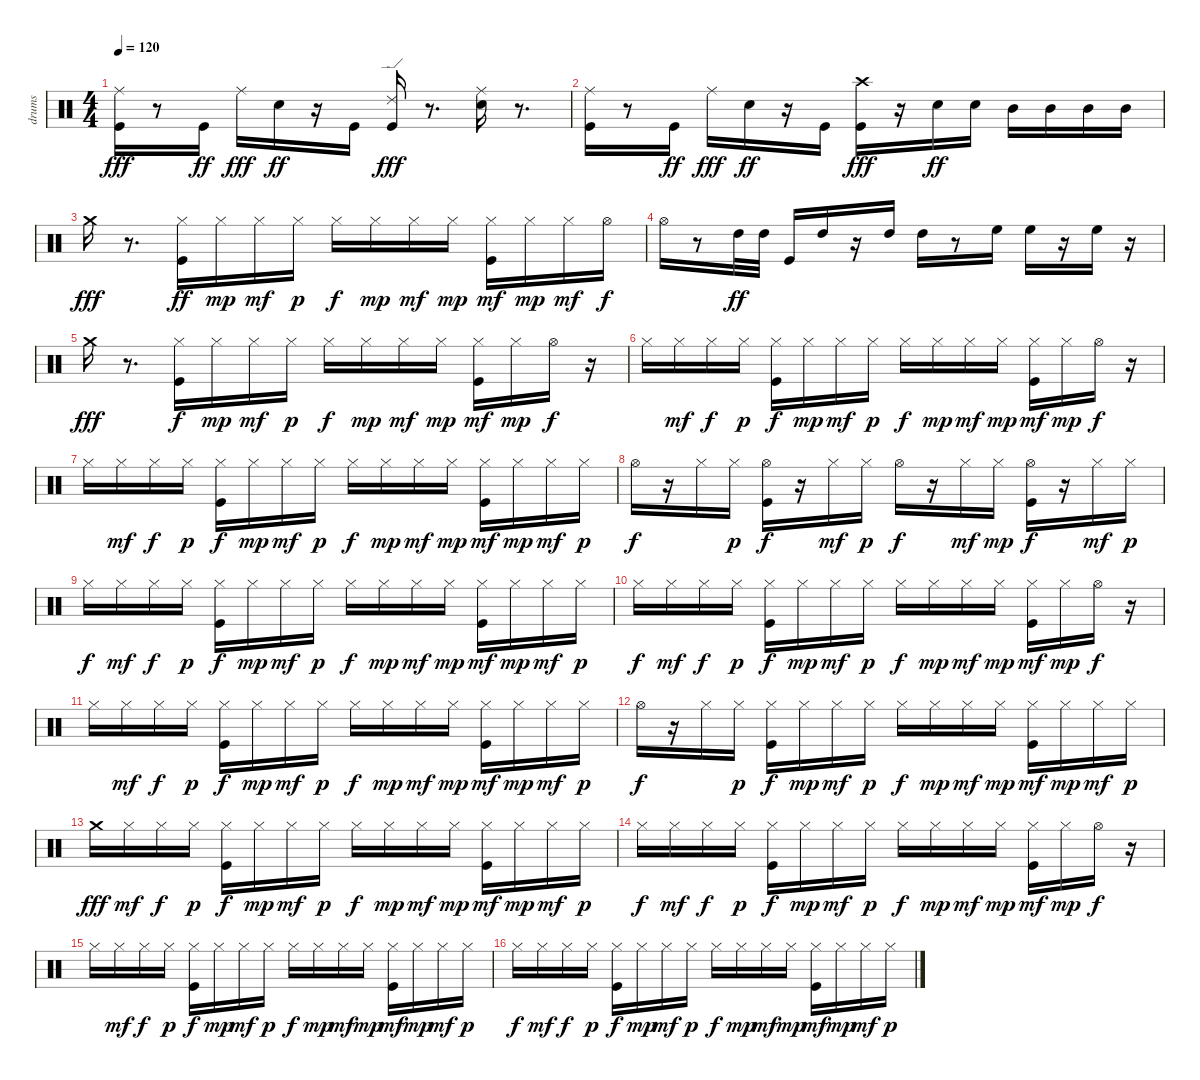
\track ("drums" "drums") {instrument percussion}
\staff {score}
\articulation defaults
\ts (4 4)
\tempo 120
\clef neutral
\ks c
("Kick (hit)" "Ride (middle)").16{dy fff} r.8 "Kick (hit)".16{dy ff} "Ride (middle)".16{dy fff} "Electric Snare (hit)".16{dy ff} r.16 "Kick (hit)".16 ("Kick (hit)" "Ride (edge) 2").16{dy fff} r.8{d} ("Electric Snare (hit)" "Ride (middle)").16 r.8{d} |
("Kick (hit)" "Ride (middle)").16 r.8 "Kick (hit)".16{dy ff} "Ride (middle)".16{dy fff} "Electric Snare (hit)".16{dy ff} r.16 "Kick (hit)".16 ("Kick (hit)" "Crash high (hit)").16{dy fff} r.16 "Electric Snare (hit)".16{dy ff} "Electric Snare (hit)".16 "Mid Tom (hit)".16 "Mid Tom (hit)".16 "Mid Tom (hit)".16 "Mid Tom (hit)".16 |
"Crash medium (hit)".16{dy fff} r.8{d} ("Kick (hit)" "Hi-Hat (closed)").16{dy ff} "Hi-Hat (closed)".16{dy mp} "Hi-Hat (closed)".16{dy mf} "Hi-Hat (closed)".16{dy p} "Hi-Hat (closed)".16{dy f} "Hi-Hat (closed)".16{dy mp} "Hi-Hat (closed)".16{dy mf} "Hi-Hat (closed)".16{dy mp} ("Kick (hit)" "Hi-Hat (closed)").16{dy mf} "Hi-Hat (closed)".16{dy mp} "Hi-Hat (closed)".16{dy mf} "Hi-Hat (open)".16{dy f} |
"Hi-Hat (open)".16 r.8 "High Tom (hit)".32{dy ff} "High Tom (hit)".32 "Kick (hit)".16 "High Tom (hit)".16 r.16 "High Tom (hit)".16 "High Tom (hit)".16 r.8 "High Floor Tom (hit)".16 "High Floor Tom (hit)".16 r.16 "High Floor Tom (hit)".16 r.16 |
"Crash medium (hit)".16{dy fff} r.8{d} ("Kick (hit)" "Hi-Hat (closed)").16{dy f} "Hi-Hat (closed)".16{dy mp} "Hi-Hat (closed)".16{dy mf} "Hi-Hat (closed)".16{dy p} "Hi-Hat (closed)".16{dy f} "Hi-Hat (closed)".16{dy mp} "Hi-Hat (closed)".16{dy mf} "Hi-Hat (closed)".16{dy mp} ("Kick (hit)" "Hi-Hat (closed)").16{dy mf} "Hi-Hat (closed)".16{dy mp} "Hi-Hat (open)".16{dy f} r.16 |
"Hi-Hat (closed)".16 "Hi-Hat (closed)".16{dy mf} "Hi-Hat (closed)".16{dy f} "Hi-Hat (closed)".16{dy p} ("Kick (hit)" "Hi-Hat (closed)").16{dy f} "Hi-Hat (closed)".16{dy mp} "Hi-Hat (closed)".16{dy mf} "Hi-Hat (closed)".16{dy p} "Hi-Hat (closed)".16{dy f} "Hi-Hat (closed)".16{dy mp} "Hi-Hat (closed)".16{dy mf} "Hi-Hat (closed)".16{dy mp} ("Kick (hit)" "Hi-Hat (closed)").16{dy mf} "Hi-Hat (closed)".16{dy mp} "Hi-Hat (open)".16{dy f} r.16 |
"Hi-Hat (closed)".16 "Hi-Hat (closed)".16{dy mf} "Hi-Hat (closed)".16{dy f} "Hi-Hat (closed)".16{dy p} ("Kick (hit)" "Hi-Hat (closed)").16{dy f} "Hi-Hat (closed)".16{dy mp} "Hi-Hat (closed)".16{dy mf} "Hi-Hat (closed)".16{dy p} "Hi-Hat (closed)".16{dy f} "Hi-Hat (closed)".16{dy mp} "Hi-Hat (closed)".16{dy mf} "Hi-Hat (closed)".16{dy mp} ("Kick (hit)" "Hi-Hat (closed)").16{dy mf} "Hi-Hat (closed)".16{dy mp} "Hi-Hat (closed)".16{dy mf} "Hi-Hat (closed)".16{dy p} |
"Hi-Hat (open)".16{dy f} r.16 "Hi-Hat (closed)".16 "Hi-Hat (closed)".16{dy p} ("Kick (hit)" "Hi-Hat (open)").16{dy f} r.16 "Hi-Hat (closed)".16{dy mf} "Hi-Hat (closed)".16{dy p} "Hi-Hat (open)".16{dy f} r.16 "Hi-Hat (closed)".16{dy mf} "Hi-Hat (closed)".16{dy mp} ("Kick (hit)" "Hi-Hat (open)").16{dy f} r.16 "Hi-Hat (closed)".16{dy mf} "Hi-Hat (closed)".16{dy p} |
"Hi-Hat (closed)".16{dy f} "Hi-Hat (closed)".16{dy mf} "Hi-Hat (closed)".16{dy f} "Hi-Hat (closed)".16{dy p} ("Kick (hit)" "Hi-Hat (closed)").16{dy f} "Hi-Hat (closed)".16{dy mp} "Hi-Hat (closed)".16{dy mf} "Hi-Hat (closed)".16{dy p} "Hi-Hat (closed)".16{dy f} "Hi-Hat (closed)".16{dy mp} "Hi-Hat (closed)".16{dy mf} "Hi-Hat (closed)".16{dy mp} ("Kick (hit)" "Hi-Hat (closed)").16{dy mf} "Hi-Hat (closed)".16{dy mp} "Hi-Hat (closed)".16{dy mf} "Hi-Hat (closed)".16{dy p} |
"Hi-Hat (closed)".16{dy f} "Hi-Hat (closed)".16{dy mf} "Hi-Hat (closed)".16{dy f} "Hi-Hat (closed)".16{dy p} ("Kick (hit)" "Hi-Hat (closed)").16{dy f} "Hi-Hat (closed)".16{dy mp} "Hi-Hat (closed)".16{dy mf} "Hi-Hat (closed)".16{dy p} "Hi-Hat (closed)".16{dy f} "Hi-Hat (closed)".16{dy mp} "Hi-Hat (closed)".16{dy mf} "Hi-Hat (closed)".16{dy mp} ("Kick (hit)" "Hi-Hat (closed)").16{dy mf} "Hi-Hat (closed)".16{dy mp} "Hi-Hat (open)".16{dy f} r.16 |
"Hi-Hat (closed)".16 "Hi-Hat (closed)".16{dy mf} "Hi-Hat (closed)".16{dy f} "Hi-Hat (closed)".16{dy p} ("Kick (hit)" "Hi-Hat (closed)").16{dy f} "Hi-Hat (closed)".16{dy mp} "Hi-Hat (closed)".16{dy mf} "Hi-Hat (closed)".16{dy p} "Hi-Hat (closed)".16{dy f} "Hi-Hat (closed)".16{dy mp} "Hi-Hat (closed)".16{dy mf} "Hi-Hat (closed)".16{dy mp} ("Kick (hit)" "Hi-Hat (closed)").16{dy mf} "Hi-Hat (closed)".16{dy mp} "Hi-Hat (closed)".16{dy mf} "Hi-Hat (closed)".16{dy p} |
"Hi-Hat (open)".16{dy f} r.16 "Hi-Hat (closed)".16 "Hi-Hat (closed)".16{dy p} ("Kick (hit)" "Hi-Hat (closed)").16{dy f} "Hi-Hat (closed)".16{dy mp} "Hi-Hat (closed)".16{dy mf} "Hi-Hat (closed)".16{dy p} "Hi-Hat (closed)".16{dy f} "Hi-Hat (closed)".16{dy mp} "Hi-Hat (closed)".16{dy mf} "Hi-Hat (closed)".16{dy mp} ("Kick (hit)" "Hi-Hat (closed)").16{dy mf} "Hi-Hat (closed)".16{dy mp} "Hi-Hat (closed)".16{dy mf} "Hi-Hat (closed)".16{dy p} |
"Crash medium (hit)".16{dy fff} "Hi-Hat (closed)".16{dy mf} "Hi-Hat (closed)".16{dy f} "Hi-Hat (closed)".16{dy p} ("Kick (hit)" "Hi-Hat (closed)").16{dy f} "Hi-Hat (closed)".16{dy mp} "Hi-Hat (closed)".16{dy mf} "Hi-Hat (closed)".16{dy p} "Hi-Hat (closed)".16{dy f} "Hi-Hat (closed)".16{dy mp} "Hi-Hat (closed)".16{dy mf} "Hi-Hat (closed)".16{dy mp} ("Kick (hit)" "Hi-Hat (closed)").16{dy mf} "Hi-Hat (closed)".16{dy mp} "Hi-Hat (closed)".16{dy mf} "Hi-Hat (closed)".16{dy p} |
"Hi-Hat (closed)".16{dy f} "Hi-Hat (closed)".16{dy mf} "Hi-Hat (closed)".16{dy f} "Hi-Hat (closed)".16{dy p} ("Kick (hit)" "Hi-Hat (closed)").16{dy f} "Hi-Hat (closed)".16{dy mp} "Hi-Hat (closed)".16{dy mf} "Hi-Hat (closed)".16{dy p} "Hi-Hat (closed)".16{dy f} "Hi-Hat (closed)".16{dy mp} "Hi-Hat (closed)".16{dy mf} "Hi-Hat (closed)".16{dy mp} ("Kick (hit)" "Hi-Hat (closed)").16{dy mf} "Hi-Hat (closed)".16{dy mp} "Hi-Hat (open)".16{dy f} r.16 |
"Hi-Hat (closed)".16 "Hi-Hat (closed)".16{dy mf} "Hi-Hat (closed)".16{dy f} "Hi-Hat (closed)".16{dy p} ("Kick (hit)" "Hi-Hat (closed)").16{dy f} "Hi-Hat (closed)".16{dy mp} "Hi-Hat (closed)".16{dy mf} "Hi-Hat (closed)".16{dy p} "Hi-Hat (closed)".16{dy f} "Hi-Hat (closed)".16{dy mp} "Hi-Hat (closed)".16{dy mf} "Hi-Hat (closed)".16{dy mp} ("Kick (hit)" "Hi-Hat (closed)").16{dy mf} "Hi-Hat (closed)".16{dy mp} "Hi-Hat (closed)".16{dy mf} "Hi-Hat (closed)".16{dy p} |
"Hi-Hat (closed)".16{dy f} "Hi-Hat (closed)".16{dy mf} "Hi-Hat (closed)".16{dy f} "Hi-Hat (closed)".16{dy p} ("Kick (hit)" "Hi-Hat (closed)").16{dy f} "Hi-Hat (closed)".16{dy mp} "Hi-Hat (closed)".16{dy mf} "Hi-Hat (closed)".16{dy p} "Hi-Hat (closed)".16{dy f} "Hi-Hat (closed)".16{dy mp} "Hi-Hat (closed)".16{dy mf} "Hi-Hat (closed)".16{dy mp} ("Kick (hit)" "Hi-Hat (closed)").16{dy mf} "Hi-Hat (closed)".16{dy mp} "Hi-Hat (closed)".16{dy mf} "Hi-Hat (closed)".16{dy p}
